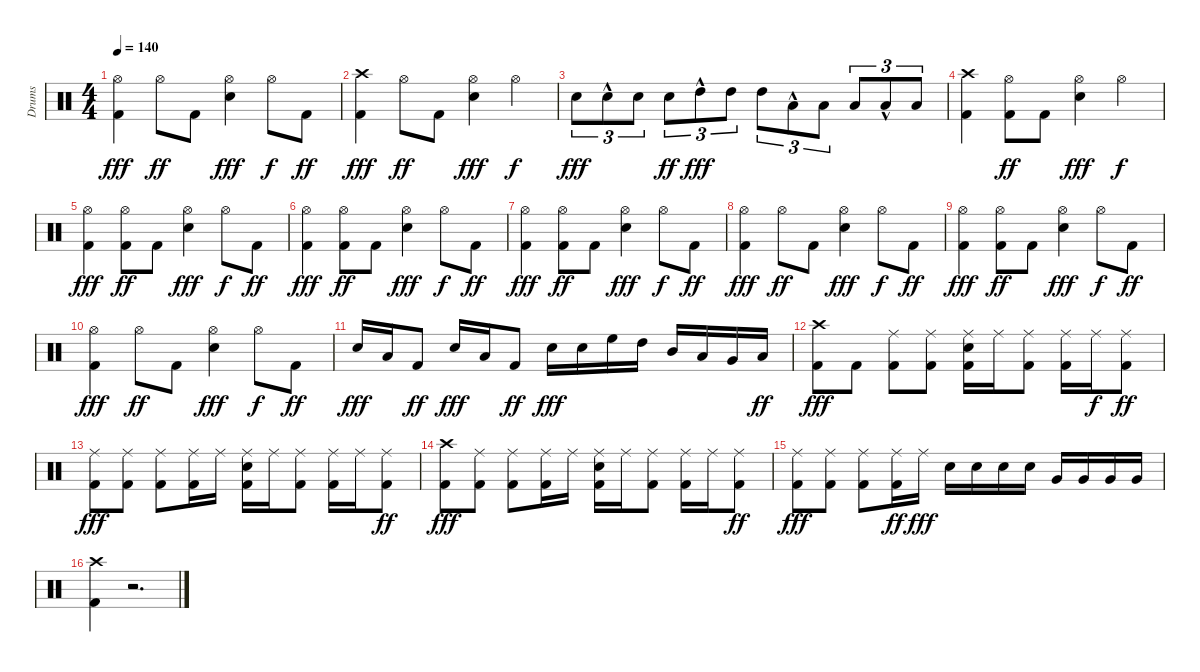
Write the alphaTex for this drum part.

\track ("Drums" "Drums") {instrument percussion}
\staff {score}
\articulation defaults
\ts (4 4)
\tempo 140
\clef neutral
\ks c
("Hi-Hat (open)" "Kick (hit) 2").4{dy fff} "Hi-Hat (open)".8{dy ff} "Kick (hit) 2".8 ("Hi-Hat (open)" "Electric Snare (hit)").4{dy fff} "Hi-Hat (open)".8{dy f} "Kick (hit) 2".8{dy ff} |
("Kick (hit) 2" "Crash high (hit)").4{dy fff} "Hi-Hat (open)".8{dy ff} "Kick (hit) 2".8 ("Hi-Hat (open)" "Electric Snare (hit)").4{dy fff} "Hi-Hat (open)".4{dy f} |
"Electric Snare (hit)".8{tu (3 2) dy fff} "Electric Snare (hit)"{hac}.8{tu (3 2)} "Electric Snare (hit)".8{tu (3 2)} "Electric Snare (hit)".8{tu (3 2) dy ff} "High Tom (hit)"{hac}.8{tu (3 2) dy fff} "High Tom (hit)".8{tu (3 2)} "High Tom (hit)".8{tu (3 2)} "Low Tom (hit)"{hac}.8{tu (3 2)} "Low Tom (hit)".8{tu (3 2)} "Low Tom (hit)".8{tu (3 2)} "Low Floor Tom (hit)"{hac}.8{tu (3 2)} "Low Floor Tom (hit)".8{tu (3 2)} |
("Kick (hit) 2" "Crash high (hit)").4 ("Hi-Hat (open)" "Kick (hit) 2").8{dy ff} "Kick (hit) 2".8 ("Hi-Hat (open)" "Electric Snare (hit)").4{dy fff} "Hi-Hat (open)".4{dy f} |
("Hi-Hat (open)" "Kick (hit) 2").4{dy fff} ("Hi-Hat (open)" "Kick (hit) 2").8{dy ff} "Kick (hit) 2".8 ("Hi-Hat (open)" "Electric Snare (hit)").4{dy fff} "Hi-Hat (open)".8{dy f} "Kick (hit) 2".8{dy ff} |
("Hi-Hat (open)" "Kick (hit) 2").4{dy fff} ("Hi-Hat (open)" "Kick (hit) 2").8{dy ff} "Kick (hit) 2".8 ("Hi-Hat (open)" "Electric Snare (hit)").4{dy fff} "Hi-Hat (open)".8{dy f} "Kick (hit) 2".8{dy ff} |
("Hi-Hat (open)" "Kick (hit) 2").4{dy fff} ("Hi-Hat (open)" "Kick (hit) 2").8{dy ff} "Kick (hit) 2".8 ("Hi-Hat (open)" "Electric Snare (hit)").4{dy fff} "Hi-Hat (open)".8{dy f} "Kick (hit) 2".8{dy ff} |
("Hi-Hat (open)" "Kick (hit) 2").4{dy fff} "Hi-Hat (open)".8{dy ff} "Kick (hit) 2".8 ("Hi-Hat (open)" "Electric Snare (hit)").4{dy fff} "Hi-Hat (open)".8{dy f} "Kick (hit) 2".8{dy ff} |
("Hi-Hat (open)" "Kick (hit) 2").4{dy fff} ("Hi-Hat (open)" "Kick (hit) 2").8{dy ff} "Kick (hit) 2".8 ("Hi-Hat (open)" "Electric Snare (hit)").4{dy fff} "Hi-Hat (open)".8{dy f} "Kick (hit) 2".8{dy ff} |
("Hi-Hat (open)" "Kick (hit) 2").4{dy fff} "Hi-Hat (open)".8{dy ff} "Kick (hit) 2".8 ("Hi-Hat (open)" "Electric Snare (hit)").4{dy fff} "Hi-Hat (open)".8{dy f} "Kick (hit) 2".8{dy ff} |
"Electric Snare (hit)".16{dy fff} "Low Tom (hit)".16 "Kick (hit) 2".8{dy ff} "Electric Snare (hit)".16{dy fff} "Low Tom (hit)".16 "Kick (hit) 2".8{dy ff} "Electric Snare (hit)".16{dy fff} "Electric Snare (hit)".16 "High Floor Tom (hit)".16 "High Tom (hit)".16 "Mid Tom (hit)".16 "Low Tom (hit)".16 "Very Low Tom (hit)".16 "Low Floor Tom (hit)".16{dy ff} |
("Kick (hit) 2" "Crash high (hit)").8{dy fff} "Kick (hit) 2".8 ("Ride (middle)" "Kick (hit) 2").8 ("Ride (middle)" "Kick (hit) 2").8 ("Ride (middle)" "Kick (hit) 2" "Electric Snare (hit)").16 "Ride (middle)".16 ("Ride (middle)" "Kick (hit) 2").8 ("Ride (middle)" "Kick (hit) 2").16 "Ride (middle)".16{dy f} ("Ride (middle)" "Kick (hit) 2").8{dy ff} |
("Ride (middle)" "Kick (hit) 2").8{dy fff} ("Ride (middle)" "Kick (hit) 2").8 ("Ride (middle)" "Kick (hit) 2").8 ("Ride (middle)" "Kick (hit) 2").16 "Ride (middle)".16 ("Ride (middle)" "Kick (hit) 2" "Electric Snare (hit)").16 "Ride (middle)".16 ("Ride (middle)" "Kick (hit) 2").8 ("Ride (middle)" "Kick (hit) 2").16 "Ride (middle)".16 ("Ride (middle)" "Kick (hit) 2").8{dy ff} |
("Kick (hit) 2" "Crash high (hit)").8{dy fff} ("Ride (middle)" "Kick (hit) 2").8 ("Ride (middle)" "Kick (hit) 2").8 ("Ride (middle)" "Kick (hit) 2").16 "Ride (middle)".16 ("Ride (middle)" "Kick (hit) 2" "Electric Snare (hit)").16 "Ride (middle)".16 ("Ride (middle)" "Kick (hit) 2").8 ("Ride (middle)" "Kick (hit) 2").16 "Ride (middle)".16 ("Ride (middle)" "Kick (hit) 2").8{dy ff} |
("Ride (middle)" "Kick (hit) 2").8{dy fff} ("Ride (middle)" "Kick (hit) 2").8 ("Ride (middle)" "Kick (hit) 2").8 ("Ride (middle)" "Kick (hit) 2").16{dy ff} "Ride (middle)".16{dy fff} "Electric Snare (hit)".16 "Electric Snare (hit)".16 "Electric Snare (hit)".16 "Electric Snare (hit)".16 "Very Low Tom (hit)".16 "Very Low Tom (hit)".16 "Very Low Tom (hit)".16 "Very Low Tom (hit)".16 |
("Kick (hit) 2" "Crash high (hit)").4 r.2{d}
